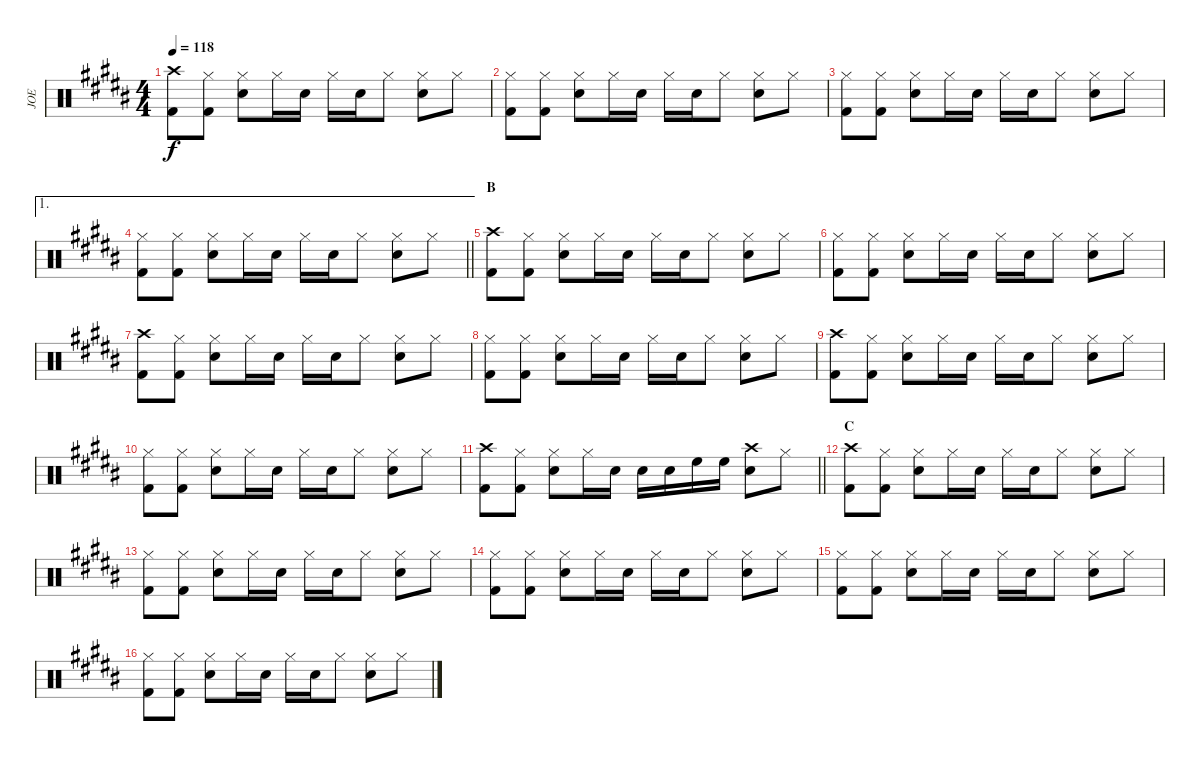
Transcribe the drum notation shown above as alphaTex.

\track ("JOE" "JOE") {instrument percussion}
\staff {score}
\articulation defaults
\ts (4 4)
\tempo 118
\clef neutral
\ks b
("Crash high (hit)" "Kick (hit) 2").8{dy f} ("Hi-Hat (closed)" "Kick (hit) 2").8 ("Hi-Hat (closed)" "Snare (hit) 2").8 "Hi-Hat (closed)".16 "Snare (hit) 2".16 "Hi-Hat (closed)".16 "Snare (hit) 2".16 "Hi-Hat (closed)".8 ("Hi-Hat (closed)" "Snare (hit) 2").8 "Hi-Hat (closed)".8 |
("Hi-Hat (closed)" "Kick (hit) 2").8 ("Hi-Hat (closed)" "Kick (hit) 2").8 ("Hi-Hat (closed)" "Snare (hit) 2").8 "Hi-Hat (closed)".16 "Snare (hit) 2".16 "Hi-Hat (closed)".16 "Snare (hit) 2".16 "Hi-Hat (closed)".8 ("Hi-Hat (closed)" "Snare (hit) 2").8 "Hi-Hat (closed)".8 |
("Hi-Hat (closed)" "Kick (hit) 2").8 ("Hi-Hat (closed)" "Kick (hit) 2").8 ("Hi-Hat (closed)" "Snare (hit) 2").8 "Hi-Hat (closed)".16 "Snare (hit) 2".16 "Hi-Hat (closed)".16 "Snare (hit) 2".16 "Hi-Hat (closed)".8 ("Hi-Hat (closed)" "Snare (hit) 2").8 "Hi-Hat (closed)".8 |
\ae 1
\barLineRight lightlight
("Hi-Hat (closed)" "Kick (hit) 2").8 ("Hi-Hat (closed)" "Kick (hit) 2").8 ("Hi-Hat (closed)" "Snare (hit) 2").8 "Hi-Hat (closed)".16 "Snare (hit) 2".16 "Hi-Hat (closed)".16 "Snare (hit) 2".16 "Hi-Hat (closed)".8 ("Hi-Hat (closed)" "Snare (hit) 2").8 "Hi-Hat (closed)".8 |
\section ("" "B")
("Crash high (hit)" "Kick (hit) 2").8 ("Hi-Hat (closed)" "Kick (hit) 2").8 ("Hi-Hat (closed)" "Snare (hit) 2").8 "Hi-Hat (closed)".16 "Snare (hit) 2".16 "Hi-Hat (closed)".16 "Snare (hit) 2".16 "Hi-Hat (closed)".8 ("Hi-Hat (closed)" "Snare (hit) 2").8 "Hi-Hat (closed)".8 |
("Hi-Hat (closed)" "Kick (hit) 2").8 ("Hi-Hat (closed)" "Kick (hit) 2").8 ("Hi-Hat (closed)" "Snare (hit) 2").8 "Hi-Hat (closed)".16 "Snare (hit) 2".16 "Hi-Hat (closed)".16 "Snare (hit) 2".16 "Hi-Hat (closed)".8 ("Hi-Hat (closed)" "Snare (hit) 2").8 "Hi-Hat (closed)".8 |
("Crash high (hit)" "Kick (hit) 2").8 ("Hi-Hat (closed)" "Kick (hit) 2").8 ("Hi-Hat (closed)" "Snare (hit) 2").8 "Hi-Hat (closed)".16 "Snare (hit) 2".16 "Hi-Hat (closed)".16 "Snare (hit) 2".16 "Hi-Hat (closed)".8 ("Hi-Hat (closed)" "Snare (hit) 2").8 "Hi-Hat (closed)".8 |
("Hi-Hat (closed)" "Kick (hit) 2").8 ("Hi-Hat (closed)" "Kick (hit) 2").8 ("Hi-Hat (closed)" "Snare (hit) 2").8 "Hi-Hat (closed)".16 "Snare (hit) 2".16 "Hi-Hat (closed)".16 "Snare (hit) 2".16 "Hi-Hat (closed)".8 ("Hi-Hat (closed)" "Snare (hit) 2").8 "Hi-Hat (closed)".8 |
("Crash high (hit)" "Kick (hit) 2").8 ("Hi-Hat (closed)" "Kick (hit) 2").8 ("Hi-Hat (closed)" "Snare (hit) 2").8 "Hi-Hat (closed)".16 "Snare (hit) 2".16 "Hi-Hat (closed)".16 "Snare (hit) 2".16 "Hi-Hat (closed)".8 ("Hi-Hat (closed)" "Snare (hit) 2").8 "Hi-Hat (closed)".8 |
("Hi-Hat (closed)" "Kick (hit) 2").8 ("Hi-Hat (closed)" "Kick (hit) 2").8 ("Hi-Hat (closed)" "Snare (hit) 2").8 "Hi-Hat (closed)".16 "Snare (hit) 2".16 "Hi-Hat (closed)".16 "Snare (hit) 2".16 "Hi-Hat (closed)".8 ("Hi-Hat (closed)" "Snare (hit) 2").8 "Hi-Hat (closed)".8 |
\barLineRight lightlight
("Crash high (hit)" "Kick (hit) 2").8 ("Hi-Hat (closed)" "Kick (hit) 2").8 ("Hi-Hat (closed)" "Snare (hit) 2").8 "Hi-Hat (closed)".16 "Snare (hit) 2".16 "Snare (hit) 2".16 "Snare (hit) 2".16 "High Floor Tom (hit)".16 "High Floor Tom (hit)".16 ("Crash high (hit)" "Snare (hit) 2").8 "Hi-Hat (closed)".8 |
\section ("" "C")
("Crash high (hit)" "Kick (hit) 2").8 ("Hi-Hat (closed)" "Kick (hit) 2").8 ("Hi-Hat (closed)" "Snare (hit) 2").8 "Hi-Hat (closed)".16 "Snare (hit) 2".16 "Hi-Hat (closed)".16 "Snare (hit) 2".16 "Hi-Hat (closed)".8 ("Hi-Hat (closed)" "Snare (hit) 2").8 "Hi-Hat (closed)".8 |
("Hi-Hat (closed)" "Kick (hit) 2").8 ("Hi-Hat (closed)" "Kick (hit) 2").8 ("Hi-Hat (closed)" "Snare (hit) 2").8 "Hi-Hat (closed)".16 "Snare (hit) 2".16 "Hi-Hat (closed)".16 "Snare (hit) 2".16 "Hi-Hat (closed)".8 ("Hi-Hat (closed)" "Snare (hit) 2").8 "Hi-Hat (closed)".8 |
("Hi-Hat (closed)" "Kick (hit) 2").8 ("Hi-Hat (closed)" "Kick (hit) 2").8 ("Hi-Hat (closed)" "Snare (hit) 2").8 "Hi-Hat (closed)".16 "Snare (hit) 2".16 "Hi-Hat (closed)".16 "Snare (hit) 2".16 "Hi-Hat (closed)".8 ("Hi-Hat (closed)" "Snare (hit) 2").8 "Hi-Hat (closed)".8 |
("Hi-Hat (closed)" "Kick (hit) 2").8 ("Hi-Hat (closed)" "Kick (hit) 2").8 ("Hi-Hat (closed)" "Snare (hit) 2").8 "Hi-Hat (closed)".16 "Snare (hit) 2".16 "Hi-Hat (closed)".16 "Snare (hit) 2".16 "Hi-Hat (closed)".8 ("Hi-Hat (closed)" "Snare (hit) 2").8 "Hi-Hat (closed)".8 |
("Hi-Hat (closed)" "Kick (hit) 2").8 ("Hi-Hat (closed)" "Kick (hit) 2").8 ("Hi-Hat (closed)" "Snare (hit) 2").8 "Hi-Hat (closed)".16 "Snare (hit) 2".16 "Hi-Hat (closed)".16 "Snare (hit) 2".16 "Hi-Hat (closed)".8 ("Hi-Hat (closed)" "Snare (hit) 2").8 "Hi-Hat (closed)".8
